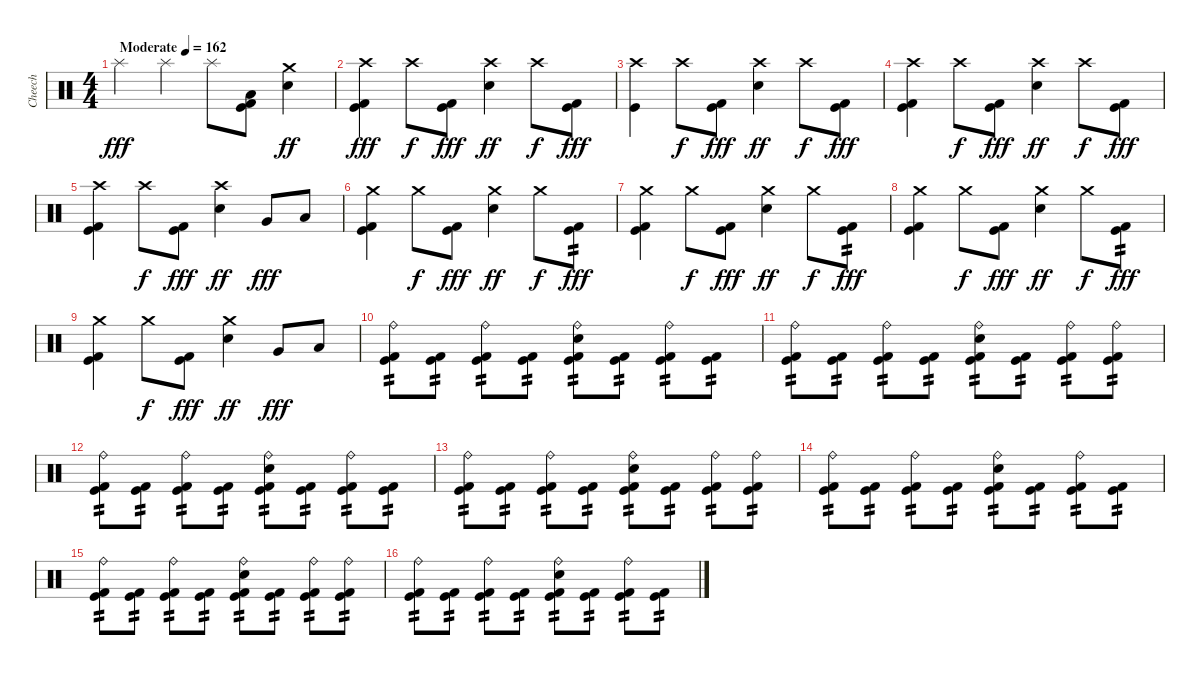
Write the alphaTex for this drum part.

\track ("Cheech" "Cheech") {instrument percussion}
\staff {score}
\articulation defaults
\ts (4 4)
\tempo (162 "Moderate")
\clef neutral
\ks c "Splash (hit)".4{dy fff} "Splash (hit)".4 "Splash (hit)".8
("Kick (hit) 2" "Low Floor Tom (hit)" "Kick (hit)").8 ("Crash medium (hit)" "Electric Snare (hit)").4{dy ff} |
("Crash high (hit)" "Kick (hit) 2" "Kick (hit)").4{dy fff} "Crash high (hit)".8{dy f} ("Kick (hit) 2" "Kick (hit)").8{dy fff} ("Crash high (hit)" "Electric Snare (hit)").4{dy ff} "Crash high (hit)".8{dy f} ("Kick (hit) 2" "Kick (hit)").8{dy fff} |
("Crash high (hit)" "Kick (hit)").4 "Crash high (hit)".8{dy f} ("Kick (hit) 2" "Kick (hit)").8{dy fff} ("Crash high (hit)" "Electric Snare (hit)").4{dy ff} "Crash high (hit)".8{dy f} ("Kick (hit) 2" "Kick (hit)").8{dy fff} |
("Crash high (hit)" "Kick (hit) 2" "Kick (hit)").4 "Crash high (hit)".8{dy f} ("Kick (hit) 2" "Kick (hit)").8{dy fff} ("Crash high (hit)" "Electric Snare (hit)").4{dy ff} "Crash high (hit)".8{dy f} ("Kick (hit) 2" "Kick (hit)").8{dy fff} |
("Crash high (hit)" "Kick (hit) 2" "Kick (hit)").4 "Crash high (hit)".8{dy f} ("Kick (hit) 2" "Kick (hit)").8{dy fff} ("Crash high (hit)" "Electric Snare (hit)").4{dy ff} "Very Low Tom (hit)".8{dy fff} "Low Floor Tom (hit)".8 |
("Crash medium (hit)" "Kick (hit) 2" "Kick (hit)").4 "Crash medium (hit)".8{dy f} ("Kick (hit) 2" "Kick (hit)").8{dy fff} ("Crash medium (hit)" "Electric Snare (hit)").4{dy ff} "Crash medium (hit)".8{dy f} ("Kick (hit) 2" "Kick (hit)").8{tp 2 dy fff} |
("Crash medium (hit)" "Kick (hit) 2" "Kick (hit)").4 "Crash medium (hit)".8{dy f} ("Kick (hit) 2" "Kick (hit)").8{dy fff} ("Crash medium (hit)" "Electric Snare (hit)").4{dy ff} "Crash medium (hit)".8{dy f} ("Kick (hit) 2" "Kick (hit)").8{tp 2 dy fff} |
("Crash medium (hit)" "Kick (hit) 2" "Kick (hit)").4 "Crash medium (hit)".8{dy f} ("Kick (hit) 2" "Kick (hit)").8{dy fff} ("Crash medium (hit)" "Electric Snare (hit)").4{dy ff} "Crash medium (hit)".8{dy f} ("Kick (hit) 2" "Kick (hit)").8{tp 2 dy fff} |
("Crash medium (hit)" "Kick (hit) 2" "Kick (hit)").4 "Crash medium (hit)".8{dy f} ("Kick (hit) 2" "Kick (hit)").8{dy fff} ("Crash medium (hit)" "Electric Snare (hit)").4{dy ff} "Very Low Tom (hit)".8{dy fff} "Low Floor Tom (hit)".8 |
("Ride (bell)" "Kick (hit) 2" "Kick (hit)").8{tp 2} ("Kick (hit) 2" "Kick (hit)").8{tp 2} ("Ride (bell)" "Kick (hit) 2" "Kick (hit)").8{tp 2} ("Kick (hit) 2" "Kick (hit)").8{tp 2} ("Ride (bell)" "Electric Snare (hit)" "Kick (hit) 2" "Kick (hit)").8{tp 2} ("Kick (hit) 2" "Kick (hit)").8{tp 2} ("Ride (bell)" "Kick (hit) 2" "Kick (hit)").8{tp 2} ("Kick (hit) 2" "Kick (hit)").8{tp 2} |
("Ride (bell)" "Kick (hit) 2" "Kick (hit)").8{tp 2} ("Kick (hit) 2" "Kick (hit)").8{tp 2} ("Ride (bell)" "Kick (hit) 2" "Kick (hit)").8{tp 2} ("Kick (hit) 2" "Kick (hit)").8{tp 2} ("Ride (bell)" "Electric Snare (hit)" "Kick (hit) 2" "Kick (hit)").8{tp 2} ("Kick (hit) 2" "Kick (hit)").8{tp 2} ("Ride (bell)" "Kick (hit) 2" "Kick (hit)").8{tp 2} ("Ride (bell)" "Kick (hit) 2" "Kick (hit)").8{tp 2} |
("Ride (bell)" "Kick (hit) 2" "Kick (hit)").8{tp 2} ("Kick (hit) 2" "Kick (hit)").8{tp 2} ("Ride (bell)" "Kick (hit) 2" "Kick (hit)").8{tp 2} ("Kick (hit) 2" "Kick (hit)").8{tp 2} ("Ride (bell)" "Electric Snare (hit)" "Kick (hit) 2" "Kick (hit)").8{tp 2} ("Kick (hit) 2" "Kick (hit)").8{tp 2} ("Ride (bell)" "Kick (hit) 2" "Kick (hit)").8{tp 2} ("Kick (hit) 2" "Kick (hit)").8{tp 2} |
("Ride (bell)" "Kick (hit) 2" "Kick (hit)").8{tp 2} ("Kick (hit) 2" "Kick (hit)").8{tp 2} ("Ride (bell)" "Kick (hit) 2" "Kick (hit)").8{tp 2} ("Kick (hit) 2" "Kick (hit)").8{tp 2} ("Ride (bell)" "Electric Snare (hit)" "Kick (hit) 2" "Kick (hit)").8{tp 2} ("Kick (hit) 2" "Kick (hit)").8{tp 2} ("Ride (bell)" "Kick (hit) 2" "Kick (hit)").8{tp 2} ("Ride (bell)" "Kick (hit) 2" "Kick (hit)").8{tp 2} |
("Ride (bell)" "Kick (hit) 2" "Kick (hit)").8{tp 2} ("Kick (hit) 2" "Kick (hit)").8{tp 2} ("Ride (bell)" "Kick (hit) 2" "Kick (hit)").8{tp 2} ("Kick (hit) 2" "Kick (hit)").8{tp 2} ("Ride (bell)" "Electric Snare (hit)" "Kick (hit) 2" "Kick (hit)").8{tp 2} ("Kick (hit) 2" "Kick (hit)").8{tp 2} ("Ride (bell)" "Kick (hit) 2" "Kick (hit)").8{tp 2} ("Kick (hit) 2" "Kick (hit)").8{tp 2} |
("Ride (bell)" "Kick (hit) 2" "Kick (hit)").8{tp 2} ("Kick (hit) 2" "Kick (hit)").8{tp 2} ("Ride (bell)" "Kick (hit) 2" "Kick (hit)").8{tp 2} ("Kick (hit) 2" "Kick (hit)").8{tp 2} ("Ride (bell)" "Electric Snare (hit)" "Kick (hit) 2" "Kick (hit)").8{tp 2} ("Kick (hit) 2" "Kick (hit)").8{tp 2} ("Ride (bell)" "Kick (hit) 2" "Kick (hit)").8{tp 2} ("Ride (bell)" "Kick (hit) 2" "Kick (hit)").8{tp 2} |
("Ride (bell)" "Kick (hit) 2" "Kick (hit)").8{tp 2} ("Kick (hit) 2" "Kick (hit)").8{tp 2} ("Ride (bell)" "Kick (hit) 2" "Kick (hit)").8{tp 2} ("Kick (hit) 2" "Kick (hit)").8{tp 2} ("Ride (bell)" "Electric Snare (hit)" "Kick (hit) 2" "Kick (hit)").8{tp 2} ("Kick (hit) 2" "Kick (hit)").8{tp 2} ("Ride (bell)" "Kick (hit) 2" "Kick (hit)").8{tp 2} ("Kick (hit) 2" "Kick (hit)").8{tp 2}
